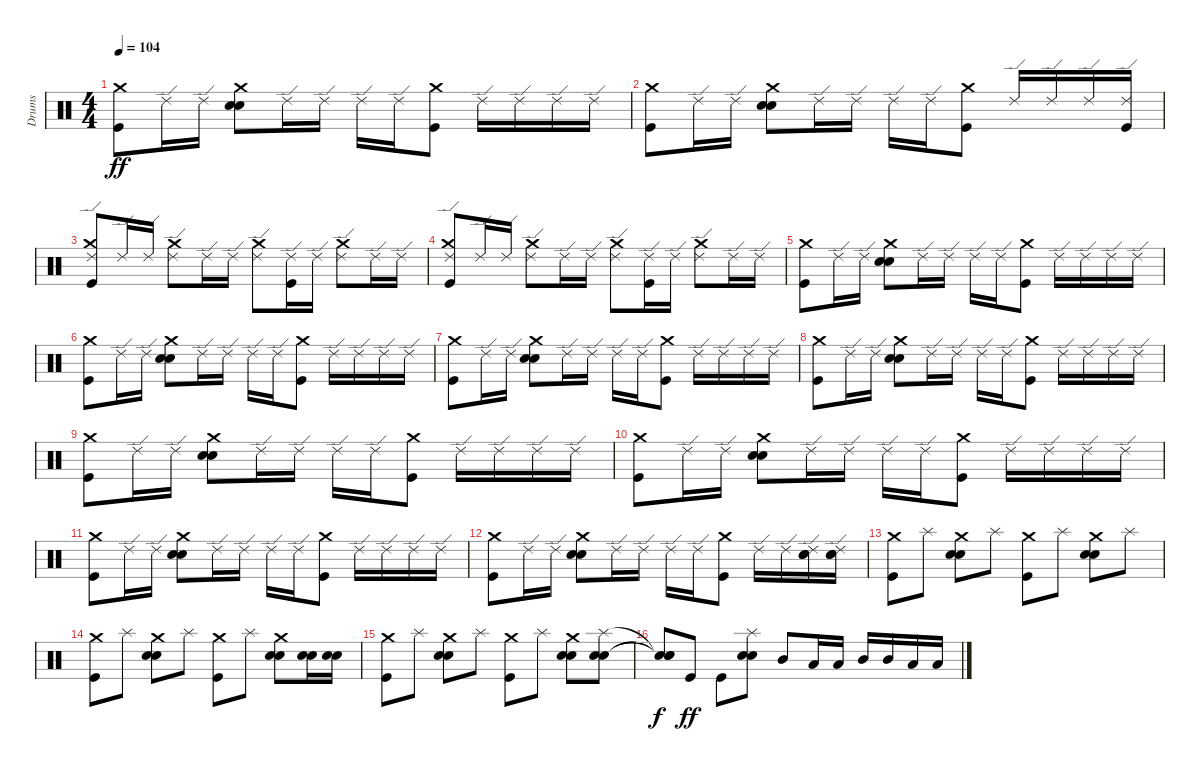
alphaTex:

\track ("Drums" "Drums") {instrument percussion}
\staff {score}
\articulation defaults
\ts (4 4)
\tempo 104
\clef neutral
\ks c
("Kick (hit)" "Crash medium (hit)").8{dy ff} "Ride (edge) 2".16 "Ride (edge) 2".16 ("Snare (hit) 2" "Electric Snare (hit)" "Crash medium (hit)").8 "Ride (edge) 2".16 "Ride (edge) 2".16 "Ride (edge) 2".16 "Ride (edge) 2".16 ("Kick (hit)" "Crash medium (hit)").8 "Ride (edge) 2".16 "Ride (edge) 2".16 "Ride (edge) 2".16 "Ride (edge) 2".16 |
("Kick (hit)" "Crash medium (hit)").8 "Ride (edge) 2".16 "Ride (edge) 2".16 ("Snare (hit) 2" "Electric Snare (hit)" "Crash medium (hit)").8 "Ride (edge) 2".16 "Ride (edge) 2".16 "Ride (edge) 2".16 "Ride (edge) 2".16 ("Kick (hit)" "Crash medium (hit)").8 "Ride (edge) 2".16 "Ride (edge) 2".16 "Ride (edge) 2".16 ("Kick (hit)" "Ride (edge) 2").16 |
("Kick (hit)" "Crash medium (hit)" "Ride (edge) 2").8 "Ride (edge) 2".16 "Ride (edge) 2".16 ("Crash medium (hit)" "Ride (edge) 2").8 "Ride (edge) 2".16 "Ride (edge) 2".16 ("Crash medium (hit)" "Ride (edge) 2").8 ("Kick (hit)" "Ride (edge) 2").16 "Ride (edge) 2".16 ("Crash medium (hit)" "Ride (edge) 2").8 "Ride (edge) 2".16 "Ride (edge) 2".16 |
("Kick (hit)" "Crash medium (hit)" "Ride (edge) 2").8 "Ride (edge) 2".16 "Ride (edge) 2".16 ("Crash medium (hit)" "Ride (edge) 2").8 "Ride (edge) 2".16 "Ride (edge) 2".16 ("Crash medium (hit)" "Ride (edge) 2").8 ("Kick (hit)" "Ride (edge) 2").16 "Ride (edge) 2".16 ("Crash medium (hit)" "Ride (edge) 2").8 "Ride (edge) 2".16 "Ride (edge) 2".16 |
("Kick (hit)" "Crash medium (hit)").8 "Ride (edge) 2".16 "Ride (edge) 2".16 ("Snare (hit) 2" "Electric Snare (hit)" "Crash medium (hit)").8 "Ride (edge) 2".16 "Ride (edge) 2".16 "Ride (edge) 2".16 "Ride (edge) 2".16 ("Kick (hit)" "Crash medium (hit)").8 "Ride (edge) 2".16 "Ride (edge) 2".16 "Ride (edge) 2".16 "Ride (edge) 2".16 |
("Kick (hit)" "Crash medium (hit)").8 "Ride (edge) 2".16 "Ride (edge) 2".16 ("Snare (hit) 2" "Electric Snare (hit)" "Crash medium (hit)").8 "Ride (edge) 2".16 "Ride (edge) 2".16 "Ride (edge) 2".16 "Ride (edge) 2".16 ("Kick (hit)" "Crash medium (hit)").8 "Ride (edge) 2".16 "Ride (edge) 2".16 "Ride (edge) 2".16 "Ride (edge) 2".16 |
("Kick (hit)" "Crash medium (hit)").8 "Ride (edge) 2".16 "Ride (edge) 2".16 ("Snare (hit) 2" "Electric Snare (hit)" "Crash medium (hit)").8 "Ride (edge) 2".16 "Ride (edge) 2".16 "Ride (edge) 2".16 "Ride (edge) 2".16 ("Kick (hit)" "Crash medium (hit)").8 "Ride (edge) 2".16 "Ride (edge) 2".16 "Ride (edge) 2".16 "Ride (edge) 2".16 |
("Kick (hit)" "Crash medium (hit)").8 "Ride (edge) 2".16 "Ride (edge) 2".16 ("Snare (hit) 2" "Electric Snare (hit)" "Crash medium (hit)").8 "Ride (edge) 2".16 "Ride (edge) 2".16 "Ride (edge) 2".16 "Ride (edge) 2".16 ("Kick (hit)" "Crash medium (hit)").8 "Ride (edge) 2".16 "Ride (edge) 2".16 "Ride (edge) 2".16 "Ride (edge) 2".16 |
("Kick (hit)" "Crash medium (hit)").8 "Ride (edge) 2".16 "Ride (edge) 2".16 ("Snare (hit) 2" "Electric Snare (hit)" "Crash medium (hit)").8 "Ride (edge) 2".16 "Ride (edge) 2".16 "Ride (edge) 2".16 "Ride (edge) 2".16 ("Kick (hit)" "Crash medium (hit)").8 "Ride (edge) 2".16 "Ride (edge) 2".16 "Ride (edge) 2".16 "Ride (edge) 2".16 |
("Kick (hit)" "Crash medium (hit)").8 "Ride (edge) 2".16 "Ride (edge) 2".16 ("Snare (hit) 2" "Electric Snare (hit)" "Crash medium (hit)").8 "Ride (edge) 2".16 "Ride (edge) 2".16 "Ride (edge) 2".16 "Ride (edge) 2".16 ("Kick (hit)" "Crash medium (hit)").8 "Ride (edge) 2".16 "Ride (edge) 2".16 "Ride (edge) 2".16 "Ride (edge) 2".16 |
("Kick (hit)" "Crash medium (hit)").8 "Ride (edge) 2".16 "Ride (edge) 2".16 ("Snare (hit) 2" "Electric Snare (hit)" "Crash medium (hit)").8 "Ride (edge) 2".16 "Ride (edge) 2".16 "Ride (edge) 2".16 "Ride (edge) 2".16 ("Kick (hit)" "Crash medium (hit)").8 "Ride (edge) 2".16 "Ride (edge) 2".16 "Ride (edge) 2".16 "Ride (edge) 2".16 |
("Kick (hit)" "Crash medium (hit)").8 "Ride (edge) 2".16 "Ride (edge) 2".16 ("Snare (hit) 2" "Electric Snare (hit)" "Crash medium (hit)").8 "Ride (edge) 2".16 "Ride (edge) 2".16 "Ride (edge) 2".16 "Ride (edge) 2".16 ("Kick (hit)" "Crash medium (hit)").8 "Ride (edge) 2".16 "Ride (edge) 2".16 ("Snare (hit) 2" "Electric Snare (hit)" "Ride (edge) 2").16 ("Snare (hit) 2" "Electric Snare (hit)" "Ride (edge) 2").16 |
("Kick (hit)" "Crash medium (hit)").8 "Splash (hit)".8 ("Snare (hit) 2" "Electric Snare (hit)" "Crash medium (hit)").8 "Splash (hit)".8 ("Kick (hit)" "Crash medium (hit)").8 "Splash (hit)".8 ("Snare (hit) 2" "Electric Snare (hit)" "Crash medium (hit)").8 "Splash (hit)".8 |
("Kick (hit)" "Crash medium (hit)").8 "Splash (hit)".8 ("Snare (hit) 2" "Electric Snare (hit)" "Crash medium (hit)").8 "Splash (hit)".8 ("Kick (hit)" "Crash medium (hit)").8 "Splash (hit)".8 ("Snare (hit) 2" "Electric Snare (hit)" "Crash medium (hit)").8 ("Snare (hit) 2" "Electric Snare (hit)").16 ("Snare (hit) 2" "Electric Snare (hit)").16 |
("Kick (hit)" "Crash medium (hit)").8 "Splash (hit)".8 ("Snare (hit) 2" "Electric Snare (hit)" "Crash medium (hit)").8 "Splash (hit)".8 ("Kick (hit)" "Crash medium (hit)").8 "Splash (hit)".8 ("Snare (hit) 2" "Electric Snare (hit)" "Crash medium (hit)").8 ("Snare (hit) 2" "Electric Snare (hit)" "Splash (hit)").8 |
("Snare (hit)"{t} "Snare (hit)"{t} "Snare (hit)"{t}).8{dy f} "Kick (hit)".8{dy ff} "Kick (hit)".8 ("Snare (hit) 2" "Electric Snare (hit)" "Splash (hit)").8 "Mid Tom (hit)".8 "Low Tom (hit)".16 "Low Tom (hit)".16 "Mid Tom (hit)".16 "Mid Tom (hit)".16 "Low Tom (hit)".16 "Low Tom (hit)".16
